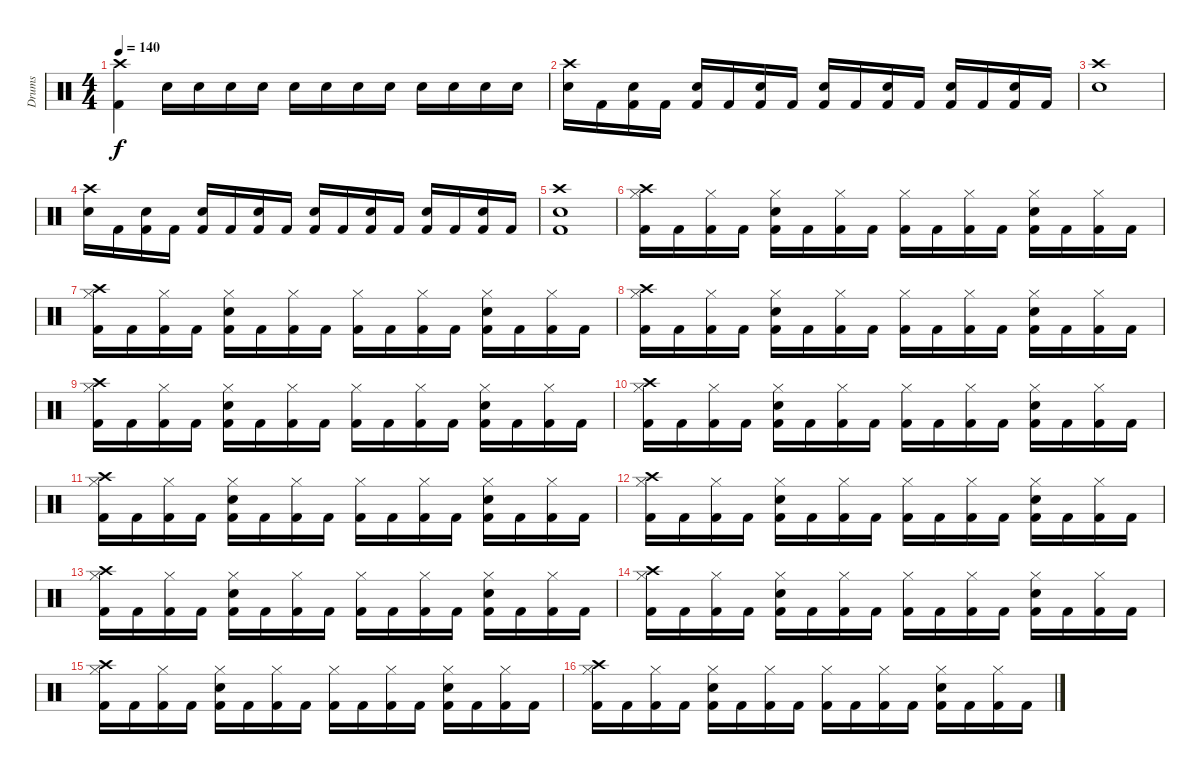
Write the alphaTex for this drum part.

\track ("Drums" "Drums") {instrument percussion}
\staff {score}
\articulation defaults
\ts (4 4)
\tempo 140
\clef neutral
\ks c
("Crash high (hit)" "Kick (hit) 2").4{dy f} "Electric Snare (hit)".16 "Electric Snare (hit)".16 "Electric Snare (hit)".16 "Electric Snare (hit)".16 "Electric Snare (hit)".16 "Electric Snare (hit)".16 "Electric Snare (hit)".16 "Electric Snare (hit)".16 "Electric Snare (hit)".16 "Electric Snare (hit)".16 "Electric Snare (hit)".16 "Electric Snare (hit)".16 |
("Crash high (hit)" "Electric Snare (hit)").16 "Kick (hit) 2".16 ("Electric Snare (hit)" "Kick (hit) 2").16 "Kick (hit) 2".16 ("Electric Snare (hit)" "Kick (hit) 2").16 "Kick (hit) 2".16 ("Electric Snare (hit)" "Kick (hit) 2").16 "Kick (hit) 2".16 ("Electric Snare (hit)" "Kick (hit) 2").16 "Kick (hit) 2".16 ("Electric Snare (hit)" "Kick (hit) 2").16 "Kick (hit) 2".16 ("Electric Snare (hit)" "Kick (hit) 2").16 "Kick (hit) 2".16 ("Electric Snare (hit)" "Kick (hit) 2").16 "Kick (hit) 2".16 |
("Crash high (hit)" "Electric Snare (hit)").1 |
("Crash high (hit)" "Electric Snare (hit)").16 "Kick (hit) 2".16 ("Electric Snare (hit)" "Kick (hit) 2").16 "Kick (hit) 2".16 ("Electric Snare (hit)" "Kick (hit) 2").16 "Kick (hit) 2".16 ("Electric Snare (hit)" "Kick (hit) 2").16 "Kick (hit) 2".16 ("Electric Snare (hit)" "Kick (hit) 2").16 "Kick (hit) 2".16 ("Electric Snare (hit)" "Kick (hit) 2").16 "Kick (hit) 2".16 ("Electric Snare (hit)" "Kick (hit) 2").16 "Kick (hit) 2".16 ("Electric Snare (hit)" "Kick (hit) 2").16 "Kick (hit) 2".16 |
("Crash high (hit)" "Electric Snare (hit)" "Kick (hit) 2").1 |
("Hi-Hat (closed)" "Crash high (hit)" "Kick (hit) 2").16 "Kick (hit) 2".16 ("Hi-Hat (closed)" "Kick (hit) 2").16 "Kick (hit) 2".16 ("Hi-Hat (closed)" "Electric Snare (hit)" "Kick (hit) 2").16 "Kick (hit) 2".16 ("Hi-Hat (closed)" "Kick (hit) 2").16 "Kick (hit) 2".16 ("Hi-Hat (closed)" "Kick (hit) 2").16 "Kick (hit) 2".16 ("Hi-Hat (closed)" "Kick (hit) 2").16 "Kick (hit) 2".16 ("Hi-Hat (closed)" "Electric Snare (hit)" "Kick (hit) 2").16 "Kick (hit) 2".16 ("Hi-Hat (closed)" "Kick (hit) 2").16 "Kick (hit) 2".16 |
("Hi-Hat (closed)" "Crash high (hit)" "Kick (hit) 2").16 "Kick (hit) 2".16 ("Hi-Hat (closed)" "Kick (hit) 2").16 "Kick (hit) 2".16 ("Hi-Hat (closed)" "Electric Snare (hit)" "Kick (hit) 2").16 "Kick (hit) 2".16 ("Hi-Hat (closed)" "Kick (hit) 2").16 "Kick (hit) 2".16 ("Hi-Hat (closed)" "Kick (hit) 2").16 "Kick (hit) 2".16 ("Hi-Hat (closed)" "Kick (hit) 2").16 "Kick (hit) 2".16 ("Hi-Hat (closed)" "Electric Snare (hit)" "Kick (hit) 2").16 "Kick (hit) 2".16 ("Hi-Hat (closed)" "Kick (hit) 2").16 "Kick (hit) 2".16 |
("Hi-Hat (closed)" "Crash high (hit)" "Kick (hit) 2").16 "Kick (hit) 2".16 ("Hi-Hat (closed)" "Kick (hit) 2").16 "Kick (hit) 2".16 ("Hi-Hat (closed)" "Electric Snare (hit)" "Kick (hit) 2").16 "Kick (hit) 2".16 ("Hi-Hat (closed)" "Kick (hit) 2").16 "Kick (hit) 2".16 ("Hi-Hat (closed)" "Kick (hit) 2").16 "Kick (hit) 2".16 ("Hi-Hat (closed)" "Kick (hit) 2").16 "Kick (hit) 2".16 ("Hi-Hat (closed)" "Electric Snare (hit)" "Kick (hit) 2").16 "Kick (hit) 2".16 ("Hi-Hat (closed)" "Kick (hit) 2").16 "Kick (hit) 2".16 |
("Hi-Hat (closed)" "Crash high (hit)" "Kick (hit) 2").16 "Kick (hit) 2".16 ("Hi-Hat (closed)" "Kick (hit) 2").16 "Kick (hit) 2".16 ("Hi-Hat (closed)" "Electric Snare (hit)" "Kick (hit) 2").16 "Kick (hit) 2".16 ("Hi-Hat (closed)" "Kick (hit) 2").16 "Kick (hit) 2".16 ("Hi-Hat (closed)" "Kick (hit) 2").16 "Kick (hit) 2".16 ("Hi-Hat (closed)" "Kick (hit) 2").16 "Kick (hit) 2".16 ("Hi-Hat (closed)" "Electric Snare (hit)" "Kick (hit) 2").16 "Kick (hit) 2".16 ("Hi-Hat (closed)" "Kick (hit) 2").16 "Kick (hit) 2".16 |
("Hi-Hat (closed)" "Crash high (hit)" "Kick (hit) 2").16 "Kick (hit) 2".16 ("Hi-Hat (closed)" "Kick (hit) 2").16 "Kick (hit) 2".16 ("Hi-Hat (closed)" "Electric Snare (hit)" "Kick (hit) 2").16 "Kick (hit) 2".16 ("Hi-Hat (closed)" "Kick (hit) 2").16 "Kick (hit) 2".16 ("Hi-Hat (closed)" "Kick (hit) 2").16 "Kick (hit) 2".16 ("Hi-Hat (closed)" "Kick (hit) 2").16 "Kick (hit) 2".16 ("Hi-Hat (closed)" "Electric Snare (hit)" "Kick (hit) 2").16 "Kick (hit) 2".16 ("Hi-Hat (closed)" "Kick (hit) 2").16 "Kick (hit) 2".16 |
("Hi-Hat (closed)" "Crash high (hit)" "Kick (hit) 2").16 "Kick (hit) 2".16 ("Hi-Hat (closed)" "Kick (hit) 2").16 "Kick (hit) 2".16 ("Hi-Hat (closed)" "Electric Snare (hit)" "Kick (hit) 2").16 "Kick (hit) 2".16 ("Hi-Hat (closed)" "Kick (hit) 2").16 "Kick (hit) 2".16 ("Hi-Hat (closed)" "Kick (hit) 2").16 "Kick (hit) 2".16 ("Hi-Hat (closed)" "Kick (hit) 2").16 "Kick (hit) 2".16 ("Hi-Hat (closed)" "Electric Snare (hit)" "Kick (hit) 2").16 "Kick (hit) 2".16 ("Hi-Hat (closed)" "Kick (hit) 2").16 "Kick (hit) 2".16 |
("Hi-Hat (closed)" "Crash high (hit)" "Kick (hit) 2").16 "Kick (hit) 2".16 ("Hi-Hat (closed)" "Kick (hit) 2").16 "Kick (hit) 2".16 ("Hi-Hat (closed)" "Electric Snare (hit)" "Kick (hit) 2").16 "Kick (hit) 2".16 ("Hi-Hat (closed)" "Kick (hit) 2").16 "Kick (hit) 2".16 ("Hi-Hat (closed)" "Kick (hit) 2").16 "Kick (hit) 2".16 ("Hi-Hat (closed)" "Kick (hit) 2").16 "Kick (hit) 2".16 ("Hi-Hat (closed)" "Electric Snare (hit)" "Kick (hit) 2").16 "Kick (hit) 2".16 ("Hi-Hat (closed)" "Kick (hit) 2").16 "Kick (hit) 2".16 |
("Hi-Hat (closed)" "Crash high (hit)" "Kick (hit) 2").16 "Kick (hit) 2".16 ("Hi-Hat (closed)" "Kick (hit) 2").16 "Kick (hit) 2".16 ("Hi-Hat (closed)" "Electric Snare (hit)" "Kick (hit) 2").16 "Kick (hit) 2".16 ("Hi-Hat (closed)" "Kick (hit) 2").16 "Kick (hit) 2".16 ("Hi-Hat (closed)" "Kick (hit) 2").16 "Kick (hit) 2".16 ("Hi-Hat (closed)" "Kick (hit) 2").16 "Kick (hit) 2".16 ("Hi-Hat (closed)" "Electric Snare (hit)" "Kick (hit) 2").16 "Kick (hit) 2".16 ("Hi-Hat (closed)" "Kick (hit) 2").16 "Kick (hit) 2".16 |
("Hi-Hat (closed)" "Crash high (hit)" "Kick (hit) 2").16 "Kick (hit) 2".16 ("Hi-Hat (closed)" "Kick (hit) 2").16 "Kick (hit) 2".16 ("Hi-Hat (closed)" "Electric Snare (hit)" "Kick (hit) 2").16 "Kick (hit) 2".16 ("Hi-Hat (closed)" "Kick (hit) 2").16 "Kick (hit) 2".16 ("Hi-Hat (closed)" "Kick (hit) 2").16 "Kick (hit) 2".16 ("Hi-Hat (closed)" "Kick (hit) 2").16 "Kick (hit) 2".16 ("Hi-Hat (closed)" "Electric Snare (hit)" "Kick (hit) 2").16 "Kick (hit) 2".16 ("Hi-Hat (closed)" "Kick (hit) 2").16 "Kick (hit) 2".16 |
("Hi-Hat (closed)" "Crash high (hit)" "Kick (hit) 2").16 "Kick (hit) 2".16 ("Hi-Hat (closed)" "Kick (hit) 2").16 "Kick (hit) 2".16 ("Hi-Hat (closed)" "Electric Snare (hit)" "Kick (hit) 2").16 "Kick (hit) 2".16 ("Hi-Hat (closed)" "Kick (hit) 2").16 "Kick (hit) 2".16 ("Hi-Hat (closed)" "Kick (hit) 2").16 "Kick (hit) 2".16 ("Hi-Hat (closed)" "Kick (hit) 2").16 "Kick (hit) 2".16 ("Hi-Hat (closed)" "Electric Snare (hit)" "Kick (hit) 2").16 "Kick (hit) 2".16 ("Hi-Hat (closed)" "Kick (hit) 2").16 "Kick (hit) 2".16 |
("Hi-Hat (closed)" "Crash high (hit)" "Kick (hit) 2").16 "Kick (hit) 2".16 ("Hi-Hat (closed)" "Kick (hit) 2").16 "Kick (hit) 2".16 ("Hi-Hat (closed)" "Electric Snare (hit)" "Kick (hit) 2").16 "Kick (hit) 2".16 ("Hi-Hat (closed)" "Kick (hit) 2").16 "Kick (hit) 2".16 ("Hi-Hat (closed)" "Kick (hit) 2").16 "Kick (hit) 2".16 ("Hi-Hat (closed)" "Kick (hit) 2").16 "Kick (hit) 2".16 ("Hi-Hat (closed)" "Electric Snare (hit)" "Kick (hit) 2").16 "Kick (hit) 2".16 ("Hi-Hat (closed)" "Kick (hit) 2").16 "Kick (hit) 2".16
